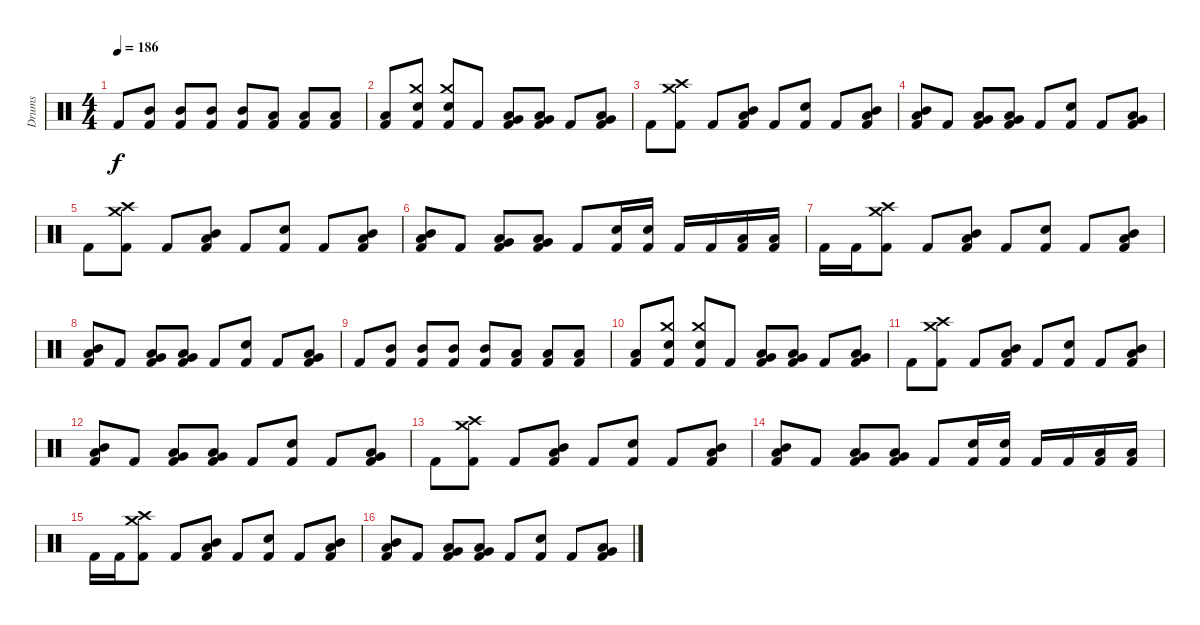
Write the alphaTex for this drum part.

\track ("Drums" "Drums") {instrument percussion bank 177}
\staff {score}
\articulation defaults
\ts (4 4)
\tempo 186
\clef neutral
\ks c "Kick (hit) 2".8{dy f}
("Mid Tom (hit)" "Kick (hit) 2").8 ("Mid Tom (hit)" "Kick (hit) 2").8 ("Mid Tom (hit)" "Kick (hit) 2").8 ("Mid Tom (hit)" "Kick (hit) 2").8 ("Low Tom (hit)" "Kick (hit) 2").8 ("Low Tom (hit)" "Kick (hit) 2").8 ("Low Tom (hit)" "Kick (hit) 2").8 |
("Low Tom (hit)" "Kick (hit) 2").8 ("Crash medium (hit)" "Snare (hit) 2" "Kick (hit) 2").8 ("Crash medium (hit)" "Snare (hit) 2" "Kick (hit) 2").8 "Kick (hit) 2".8 ("Very Low Tom (hit)" "Low Tom (hit)" "Kick (hit) 2").8 ("Very Low Tom (hit)" "Low Tom (hit)" "Kick (hit) 2").8 "Kick (hit) 2".8 ("Low Floor Tom (hit)" "Very Low Tom (hit)" "Kick (hit) 2").8 |
"Kick (hit) 2".8 ("Crash high (hit)" "Crash medium (hit)" "Kick (hit) 2").8 "Kick (hit) 2".8 ("Low Tom (hit)" "Mid Tom (hit)" "Kick (hit) 2").8 "Kick (hit) 2".8 ("Snare (hit) 2" "Kick (hit) 2").8 "Kick (hit) 2".8 ("Low Tom (hit)" "Mid Tom (hit)" "Kick (hit) 2").8 |
("Low Tom (hit)" "Mid Tom (hit)" "Kick (hit) 2").8 "Kick (hit) 2".8 ("Very Low Tom (hit)" "Low Tom (hit)" "Kick (hit) 2").8 ("Very Low Tom (hit)" "Low Tom (hit)" "Kick (hit) 2").8 "Kick (hit) 2".8 ("Snare (hit) 2" "Kick (hit) 2").8 "Kick (hit) 2".8 ("Low Floor Tom (hit)" "Very Low Tom (hit)" "Kick (hit) 2").8 |
"Kick (hit) 2".8 ("Crash high (hit)" "Crash medium (hit)" "Kick (hit) 2").8 "Kick (hit) 2".8 ("Low Tom (hit)" "Mid Tom (hit)" "Kick (hit) 2").8 "Kick (hit) 2".8 ("Snare (hit) 2" "Kick (hit) 2").8 "Kick (hit) 2".8 ("Low Tom (hit)" "Mid Tom (hit)" "Kick (hit) 2").8 |
("Low Tom (hit)" "Mid Tom (hit)" "Kick (hit) 2").8 "Kick (hit) 2".8 ("Very Low Tom (hit)" "Low Tom (hit)" "Kick (hit) 2").8 ("Very Low Tom (hit)" "Low Tom (hit)" "Kick (hit) 2").8 "Kick (hit) 2".8 ("Snare (hit) 2" "Kick (hit) 2").16 ("Snare (hit) 2" "Kick (hit) 2").16 "Kick (hit) 2".16 "Kick (hit) 2".16 ("Low Tom (hit)" "Kick (hit) 2").16 ("Low Tom (hit)" "Kick (hit) 2").16 |
"Kick (hit) 2".16 "Kick (hit) 2".16 ("Crash high (hit)" "Crash medium (hit)" "Kick (hit) 2").8 "Kick (hit) 2".8 ("Low Tom (hit)" "Mid Tom (hit)" "Kick (hit) 2").8 "Kick (hit) 2".8 ("Snare (hit) 2" "Kick (hit) 2").8 "Kick (hit) 2".8 ("Low Tom (hit)" "Mid Tom (hit)" "Kick (hit) 2").8 |
("Low Tom (hit)" "Mid Tom (hit)" "Kick (hit) 2").8 "Kick (hit) 2".8 ("Very Low Tom (hit)" "Low Tom (hit)" "Kick (hit) 2").8 ("Very Low Tom (hit)" "Low Tom (hit)" "Kick (hit) 2").8 "Kick (hit) 2".8 ("Snare (hit) 2" "Kick (hit) 2").8 "Kick (hit) 2".8 ("Low Floor Tom (hit)" "Very Low Tom (hit)" "Kick (hit) 2").8 |
"Kick (hit) 2".8 ("Mid Tom (hit)" "Kick (hit) 2").8 ("Mid Tom (hit)" "Kick (hit) 2").8 ("Mid Tom (hit)" "Kick (hit) 2").8 ("Mid Tom (hit)" "Kick (hit) 2").8 ("Low Tom (hit)" "Kick (hit) 2").8 ("Low Tom (hit)" "Kick (hit) 2").8 ("Low Tom (hit)" "Kick (hit) 2").8 |
("Low Tom (hit)" "Kick (hit) 2").8 ("Crash medium (hit)" "Snare (hit) 2" "Kick (hit) 2").8 ("Crash medium (hit)" "Snare (hit) 2" "Kick (hit) 2").8 "Kick (hit) 2".8 ("Very Low Tom (hit)" "Low Tom (hit)" "Kick (hit) 2").8 ("Very Low Tom (hit)" "Low Tom (hit)" "Kick (hit) 2").8 "Kick (hit) 2".8 ("Low Floor Tom (hit)" "Very Low Tom (hit)" "Kick (hit) 2").8 |
"Kick (hit) 2".8 ("Crash high (hit)" "Crash medium (hit)" "Kick (hit) 2").8 "Kick (hit) 2".8 ("Low Tom (hit)" "Mid Tom (hit)" "Kick (hit) 2").8 "Kick (hit) 2".8 ("Snare (hit) 2" "Kick (hit) 2").8 "Kick (hit) 2".8 ("Low Tom (hit)" "Mid Tom (hit)" "Kick (hit) 2").8 |
("Low Tom (hit)" "Mid Tom (hit)" "Kick (hit) 2").8 "Kick (hit) 2".8 ("Very Low Tom (hit)" "Low Tom (hit)" "Kick (hit) 2").8 ("Very Low Tom (hit)" "Low Tom (hit)" "Kick (hit) 2").8 "Kick (hit) 2".8 ("Snare (hit) 2" "Kick (hit) 2").8 "Kick (hit) 2".8 ("Low Floor Tom (hit)" "Very Low Tom (hit)" "Kick (hit) 2").8 |
"Kick (hit) 2".8 ("Crash high (hit)" "Crash medium (hit)" "Kick (hit) 2").8 "Kick (hit) 2".8 ("Low Tom (hit)" "Mid Tom (hit)" "Kick (hit) 2").8 "Kick (hit) 2".8 ("Snare (hit) 2" "Kick (hit) 2").8 "Kick (hit) 2".8 ("Low Tom (hit)" "Mid Tom (hit)" "Kick (hit) 2").8 |
("Low Tom (hit)" "Mid Tom (hit)" "Kick (hit) 2").8 "Kick (hit) 2".8 ("Very Low Tom (hit)" "Low Tom (hit)" "Kick (hit) 2").8 ("Very Low Tom (hit)" "Low Tom (hit)" "Kick (hit) 2").8 "Kick (hit) 2".8 ("Snare (hit) 2" "Kick (hit) 2").16 ("Snare (hit) 2" "Kick (hit) 2").16 "Kick (hit) 2".16 "Kick (hit) 2".16 ("Low Tom (hit)" "Kick (hit) 2").16 ("Low Tom (hit)" "Kick (hit) 2").16 |
"Kick (hit) 2".16 "Kick (hit) 2".16 ("Crash high (hit)" "Crash medium (hit)" "Kick (hit) 2").8 "Kick (hit) 2".8 ("Low Tom (hit)" "Mid Tom (hit)" "Kick (hit) 2").8 "Kick (hit) 2".8 ("Snare (hit) 2" "Kick (hit) 2").8 "Kick (hit) 2".8 ("Low Tom (hit)" "Mid Tom (hit)" "Kick (hit) 2").8 |
("Low Tom (hit)" "Mid Tom (hit)" "Kick (hit) 2").8 "Kick (hit) 2".8 ("Very Low Tom (hit)" "Low Tom (hit)" "Kick (hit) 2").8 ("Very Low Tom (hit)" "Low Tom (hit)" "Kick (hit) 2").8 "Kick (hit) 2".8 ("Snare (hit) 2" "Kick (hit) 2").8 "Kick (hit) 2".8 ("Low Floor Tom (hit)" "Very Low Tom (hit)" "Kick (hit) 2").8
